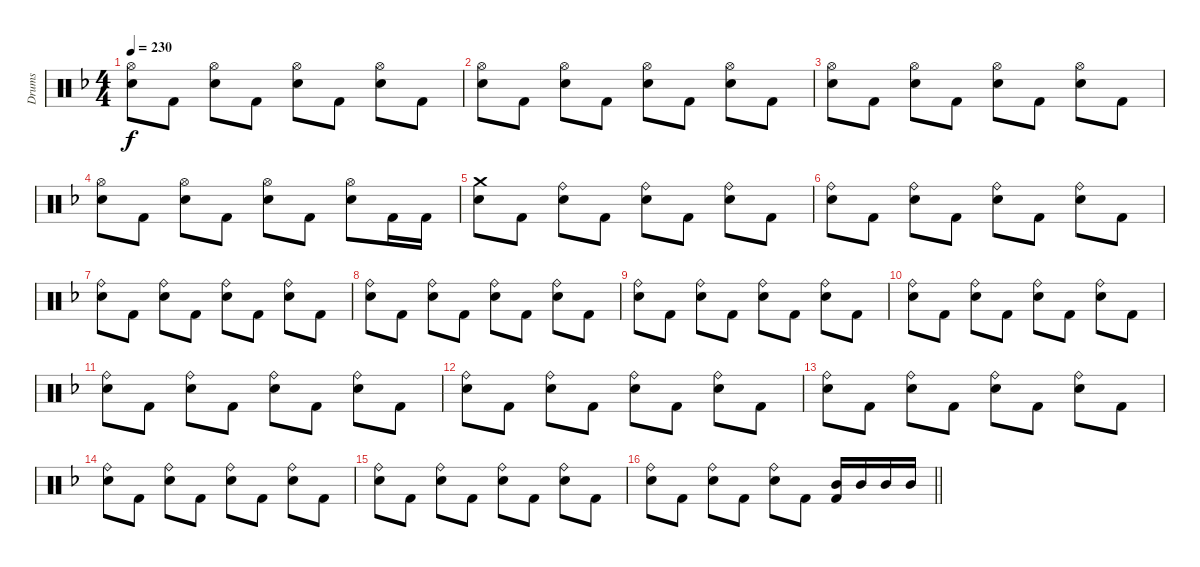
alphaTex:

\track ("Drums" "Drums") {instrument percussion}
\staff {score}
\articulation defaults
\ts (4 4)
\tempo 230
\clef neutral
\ks f
("Hi-Hat (open)" "Snare (hit) 2").8{dy f} "Kick (hit) 2".8 ("Hi-Hat (open)" "Snare (hit) 2").8 "Kick (hit) 2".8 ("Hi-Hat (open)" "Snare (hit) 2").8 "Kick (hit) 2".8 ("Hi-Hat (open)" "Snare (hit) 2").8 "Kick (hit) 2".8 |
("Hi-Hat (open)" "Snare (hit) 2").8 "Kick (hit) 2".8 ("Hi-Hat (open)" "Snare (hit) 2").8 "Kick (hit) 2".8 ("Hi-Hat (open)" "Snare (hit) 2").8 "Kick (hit) 2".8 ("Hi-Hat (open)" "Snare (hit) 2").8 "Kick (hit) 2".8 |
("Hi-Hat (open)" "Snare (hit) 2").8 "Kick (hit) 2".8 ("Hi-Hat (open)" "Snare (hit) 2").8 "Kick (hit) 2".8 ("Hi-Hat (open)" "Snare (hit) 2").8 "Kick (hit) 2".8 ("Hi-Hat (open)" "Snare (hit) 2").8 "Kick (hit) 2".8 |
("Hi-Hat (open)" "Snare (hit) 2").8 "Kick (hit) 2".8 ("Hi-Hat (open)" "Snare (hit) 2").8 "Kick (hit) 2".8 ("Hi-Hat (open)" "Snare (hit) 2").8 "Kick (hit) 2".8 ("Hi-Hat (open)" "Snare (hit) 2").8 "Kick (hit) 2".16 "Kick (hit) 2".16 |
("Crash medium (hit)" "Snare (hit) 2").8 "Kick (hit) 2".8 ("Ride (bell)" "Snare (hit) 2").8 "Kick (hit) 2".8 ("Ride (bell)" "Snare (hit) 2").8 "Kick (hit) 2".8 ("Ride (bell)" "Snare (hit) 2").8 "Kick (hit) 2".8 |
("Ride (bell)" "Snare (hit) 2").8 "Kick (hit) 2".8 ("Ride (bell)" "Snare (hit) 2").8 "Kick (hit) 2".8 ("Ride (bell)" "Snare (hit) 2").8 "Kick (hit) 2".8 ("Ride (bell)" "Snare (hit) 2").8 "Kick (hit) 2".8 |
("Ride (bell)" "Snare (hit) 2").8 "Kick (hit) 2".8 ("Ride (bell)" "Snare (hit) 2").8 "Kick (hit) 2".8 ("Ride (bell)" "Snare (hit) 2").8 "Kick (hit) 2".8 ("Ride (bell)" "Snare (hit) 2").8 "Kick (hit) 2".8 |
("Ride (bell)" "Snare (hit) 2").8 "Kick (hit) 2".8 ("Ride (bell)" "Snare (hit) 2").8 "Kick (hit) 2".8 ("Ride (bell)" "Snare (hit) 2").8 "Kick (hit) 2".8 ("Ride (bell)" "Snare (hit) 2").8 "Kick (hit) 2".8 |
("Ride (bell)" "Snare (hit) 2").8 "Kick (hit) 2".8 ("Ride (bell)" "Snare (hit) 2").8 "Kick (hit) 2".8 ("Ride (bell)" "Snare (hit) 2").8 "Kick (hit) 2".8 ("Ride (bell)" "Snare (hit) 2").8 "Kick (hit) 2".8 |
("Ride (bell)" "Snare (hit) 2").8 "Kick (hit) 2".8 ("Ride (bell)" "Snare (hit) 2").8 "Kick (hit) 2".8 ("Ride (bell)" "Snare (hit) 2").8 "Kick (hit) 2".8 ("Ride (bell)" "Snare (hit) 2").8 "Kick (hit) 2".8 |
("Ride (bell)" "Snare (hit) 2").8 "Kick (hit) 2".8 ("Ride (bell)" "Snare (hit) 2").8 "Kick (hit) 2".8 ("Ride (bell)" "Snare (hit) 2").8 "Kick (hit) 2".8 ("Ride (bell)" "Snare (hit) 2").8 "Kick (hit) 2".8 |
("Ride (bell)" "Snare (hit) 2").8 "Kick (hit) 2".8 ("Ride (bell)" "Snare (hit) 2").8 "Kick (hit) 2".8 ("Ride (bell)" "Snare (hit) 2").8 "Kick (hit) 2".8 ("Ride (bell)" "Snare (hit) 2").8 "Kick (hit) 2".8 |
("Ride (bell)" "Snare (hit) 2").8 "Kick (hit) 2".8 ("Ride (bell)" "Snare (hit) 2").8 "Kick (hit) 2".8 ("Ride (bell)" "Snare (hit) 2").8 "Kick (hit) 2".8 ("Ride (bell)" "Snare (hit) 2").8 "Kick (hit) 2".8 |
("Ride (bell)" "Snare (hit) 2").8 "Kick (hit) 2".8 ("Ride (bell)" "Snare (hit) 2").8 "Kick (hit) 2".8 ("Ride (bell)" "Snare (hit) 2").8 "Kick (hit) 2".8 ("Ride (bell)" "Snare (hit) 2").8 "Kick (hit) 2".8 |
("Ride (bell)" "Snare (hit) 2").8 "Kick (hit) 2".8 ("Ride (bell)" "Snare (hit) 2").8 "Kick (hit) 2".8 ("Ride (bell)" "Snare (hit) 2").8 "Kick (hit) 2".8 ("Ride (bell)" "Snare (hit) 2").8 "Kick (hit) 2".8 |
\barLineRight lightlight
("Ride (bell)" "Snare (hit) 2").8 "Kick (hit) 2".8 ("Ride (bell)" "Snare (hit) 2").8 "Kick (hit) 2".8 ("Ride (bell)" "Snare (hit) 2").8 "Kick (hit) 2".8 ("Mid Tom (hit)" "Kick (hit) 2").16 "Mid Tom (hit)".16 "Mid Tom (hit)".16 "Mid Tom (hit)".16
